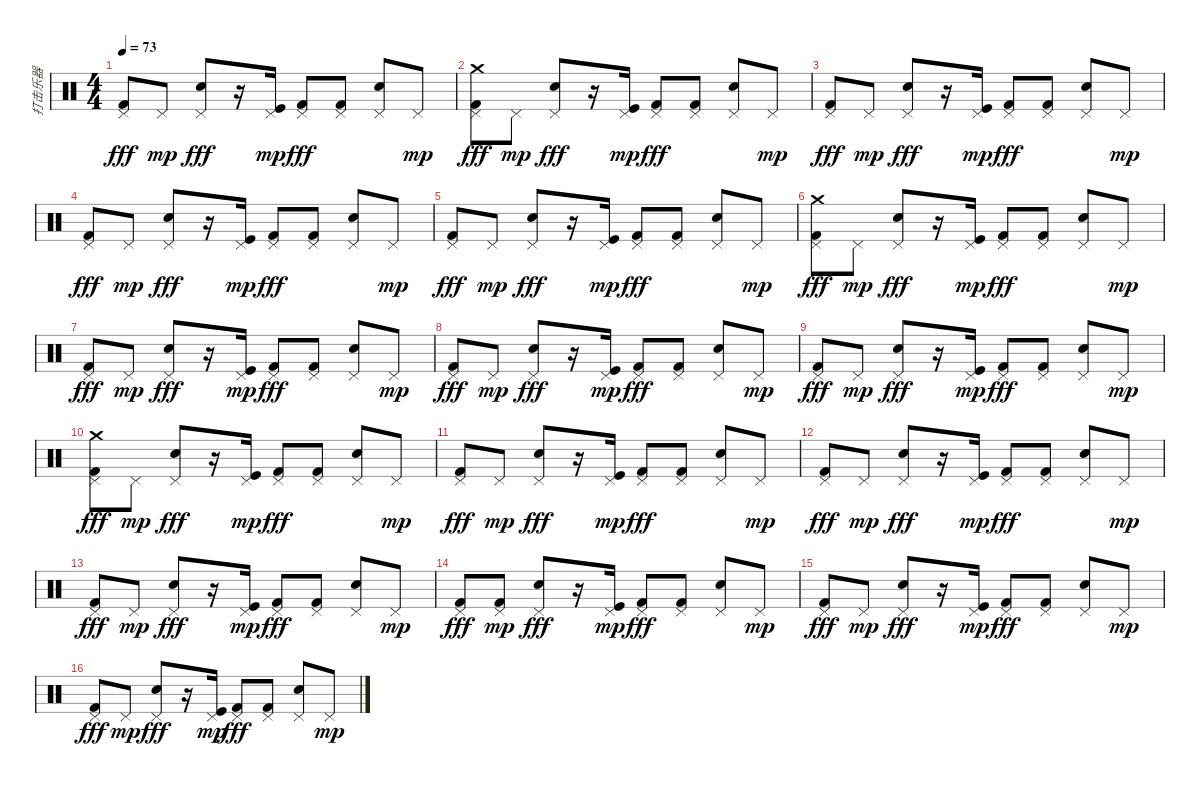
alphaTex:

\track ("打击乐器" "打击乐器") {instrument percussion}
\staff {score}
\articulation defaults
\ts (4 4)
\tempo 73
\clef neutral
\ks c
("Pedal Hi-Hat (hit)" "Kick (hit) 2").8{dy fff} "Pedal Hi-Hat (hit)".8{dy mp} ("Pedal Hi-Hat (hit)" "Electric Snare (hit)").8{dy fff} r.16 ("Pedal Hi-Hat (hit)" "Kick (hit)").16{dy mp} ("Pedal Hi-Hat (hit)" "Kick (hit) 2").8{dy fff} ("Pedal Hi-Hat (hit)" "Kick (hit) 2").8 ("Pedal Hi-Hat (hit)" "Electric Snare (hit)").8 "Pedal Hi-Hat (hit)".8{dy mp} |
("Pedal Hi-Hat (hit)" "Kick (hit) 2" "Crash medium (hit)").8{dy fff} "Pedal Hi-Hat (hit)".8{dy mp} ("Pedal Hi-Hat (hit)" "Electric Snare (hit)").8{dy fff} r.16 ("Pedal Hi-Hat (hit)" "Kick (hit)").16{dy mp} ("Pedal Hi-Hat (hit)" "Kick (hit) 2").8{dy fff} ("Pedal Hi-Hat (hit)" "Kick (hit) 2").8 ("Pedal Hi-Hat (hit)" "Electric Snare (hit)").8 "Pedal Hi-Hat (hit)".8{dy mp} |
("Pedal Hi-Hat (hit)" "Kick (hit) 2").8{dy fff} "Pedal Hi-Hat (hit)".8{dy mp} ("Pedal Hi-Hat (hit)" "Electric Snare (hit)").8{dy fff} r.16 ("Pedal Hi-Hat (hit)" "Kick (hit)").16{dy mp} ("Pedal Hi-Hat (hit)" "Kick (hit) 2").8{dy fff} ("Pedal Hi-Hat (hit)" "Kick (hit) 2").8 ("Pedal Hi-Hat (hit)" "Electric Snare (hit)").8 "Pedal Hi-Hat (hit)".8{dy mp} |
("Pedal Hi-Hat (hit)" "Kick (hit) 2").8{dy fff} "Pedal Hi-Hat (hit)".8{dy mp} ("Pedal Hi-Hat (hit)" "Electric Snare (hit)").8{dy fff} r.16 ("Pedal Hi-Hat (hit)" "Kick (hit)").16{dy mp} ("Pedal Hi-Hat (hit)" "Kick (hit) 2").8{dy fff} ("Pedal Hi-Hat (hit)" "Kick (hit) 2").8 ("Pedal Hi-Hat (hit)" "Electric Snare (hit)").8 "Pedal Hi-Hat (hit)".8{dy mp} |
("Pedal Hi-Hat (hit)" "Kick (hit) 2").8{dy fff} "Pedal Hi-Hat (hit)".8{dy mp} ("Pedal Hi-Hat (hit)" "Electric Snare (hit)").8{dy fff} r.16 ("Pedal Hi-Hat (hit)" "Kick (hit)").16{dy mp} ("Pedal Hi-Hat (hit)" "Kick (hit) 2").8{dy fff} ("Pedal Hi-Hat (hit)" "Kick (hit) 2").8 ("Pedal Hi-Hat (hit)" "Electric Snare (hit)").8 "Pedal Hi-Hat (hit)".8{dy mp} |
("Pedal Hi-Hat (hit)" "Kick (hit) 2" "Crash medium (hit)").8{dy fff} "Pedal Hi-Hat (hit)".8{dy mp} ("Pedal Hi-Hat (hit)" "Electric Snare (hit)").8{dy fff} r.16 ("Pedal Hi-Hat (hit)" "Kick (hit)").16{dy mp} ("Pedal Hi-Hat (hit)" "Kick (hit) 2").8{dy fff} ("Pedal Hi-Hat (hit)" "Kick (hit) 2").8 ("Pedal Hi-Hat (hit)" "Electric Snare (hit)").8 "Pedal Hi-Hat (hit)".8{dy mp} |
("Pedal Hi-Hat (hit)" "Kick (hit) 2").8{dy fff} "Pedal Hi-Hat (hit)".8{dy mp} ("Pedal Hi-Hat (hit)" "Electric Snare (hit)").8{dy fff} r.16 ("Pedal Hi-Hat (hit)" "Kick (hit)").16{dy mp} ("Pedal Hi-Hat (hit)" "Kick (hit) 2").8{dy fff} ("Pedal Hi-Hat (hit)" "Kick (hit) 2").8 ("Pedal Hi-Hat (hit)" "Electric Snare (hit)").8 "Pedal Hi-Hat (hit)".8{dy mp} |
("Pedal Hi-Hat (hit)" "Kick (hit) 2").8{dy fff} "Pedal Hi-Hat (hit)".8{dy mp} ("Pedal Hi-Hat (hit)" "Electric Snare (hit)").8{dy fff} r.16 ("Pedal Hi-Hat (hit)" "Kick (hit)").16{dy mp} ("Pedal Hi-Hat (hit)" "Kick (hit) 2").8{dy fff} ("Pedal Hi-Hat (hit)" "Kick (hit) 2").8 ("Pedal Hi-Hat (hit)" "Electric Snare (hit)").8 "Pedal Hi-Hat (hit)".8{dy mp} |
("Pedal Hi-Hat (hit)" "Kick (hit) 2").8{dy fff} "Pedal Hi-Hat (hit)".8{dy mp} ("Pedal Hi-Hat (hit)" "Electric Snare (hit)").8{dy fff} r.16 ("Pedal Hi-Hat (hit)" "Kick (hit)").16{dy mp} ("Pedal Hi-Hat (hit)" "Kick (hit) 2").8{dy fff} ("Pedal Hi-Hat (hit)" "Kick (hit) 2").8 ("Pedal Hi-Hat (hit)" "Electric Snare (hit)").8 "Pedal Hi-Hat (hit)".8{dy mp} |
("Pedal Hi-Hat (hit)" "Kick (hit) 2" "Crash medium (hit)").8{dy fff} "Pedal Hi-Hat (hit)".8{dy mp} ("Pedal Hi-Hat (hit)" "Electric Snare (hit)").8{dy fff} r.16 ("Pedal Hi-Hat (hit)" "Kick (hit)").16{dy mp} ("Pedal Hi-Hat (hit)" "Kick (hit) 2").8{dy fff} ("Pedal Hi-Hat (hit)" "Kick (hit) 2").8 ("Pedal Hi-Hat (hit)" "Electric Snare (hit)").8 "Pedal Hi-Hat (hit)".8{dy mp} |
("Pedal Hi-Hat (hit)" "Kick (hit) 2").8{dy fff} "Pedal Hi-Hat (hit)".8{dy mp} ("Pedal Hi-Hat (hit)" "Electric Snare (hit)").8{dy fff} r.16 ("Pedal Hi-Hat (hit)" "Kick (hit)").16{dy mp} ("Pedal Hi-Hat (hit)" "Kick (hit) 2").8{dy fff} ("Pedal Hi-Hat (hit)" "Kick (hit) 2").8 ("Pedal Hi-Hat (hit)" "Electric Snare (hit)").8 "Pedal Hi-Hat (hit)".8{dy mp} |
("Pedal Hi-Hat (hit)" "Kick (hit) 2").8{dy fff} "Pedal Hi-Hat (hit)".8{dy mp} ("Pedal Hi-Hat (hit)" "Electric Snare (hit)").8{dy fff} r.16 ("Pedal Hi-Hat (hit)" "Kick (hit)").16{dy mp} ("Pedal Hi-Hat (hit)" "Kick (hit) 2").8{dy fff} ("Pedal Hi-Hat (hit)" "Kick (hit) 2").8 ("Pedal Hi-Hat (hit)" "Electric Snare (hit)").8 "Pedal Hi-Hat (hit)".8{dy mp} |
("Pedal Hi-Hat (hit)" "Kick (hit) 2").8{dy fff} "Pedal Hi-Hat (hit)".8{dy mp} ("Pedal Hi-Hat (hit)" "Electric Snare (hit)").8{dy fff} r.16 ("Pedal Hi-Hat (hit)" "Kick (hit)").16{dy mp} ("Pedal Hi-Hat (hit)" "Kick (hit) 2").8{dy fff} ("Pedal Hi-Hat (hit)" "Kick (hit) 2").8 ("Pedal Hi-Hat (hit)" "Electric Snare (hit)").8 "Pedal Hi-Hat (hit)".8{dy mp} |
("Pedal Hi-Hat (hit)" "Kick (hit) 2").8{dy fff} ("Pedal Hi-Hat (hit)" "Kick (hit) 2").8{dy mp} ("Pedal Hi-Hat (hit)" "Electric Snare (hit)").8{dy fff} r.16 ("Pedal Hi-Hat (hit)" "Kick (hit)").16{dy mp} ("Pedal Hi-Hat (hit)" "Kick (hit) 2").8{dy fff} ("Pedal Hi-Hat (hit)" "Kick (hit) 2").8 ("Pedal Hi-Hat (hit)" "Electric Snare (hit)").8 "Pedal Hi-Hat (hit)".8{dy mp} |
("Pedal Hi-Hat (hit)" "Kick (hit) 2").8{dy fff} "Pedal Hi-Hat (hit)".8{dy mp} ("Pedal Hi-Hat (hit)" "Electric Snare (hit)").8{dy fff} r.16 ("Pedal Hi-Hat (hit)" "Kick (hit)").16{dy mp} ("Pedal Hi-Hat (hit)" "Kick (hit) 2").8{dy fff} ("Pedal Hi-Hat (hit)" "Kick (hit) 2").8 ("Pedal Hi-Hat (hit)" "Electric Snare (hit)").8 "Pedal Hi-Hat (hit)".8{dy mp} |
("Pedal Hi-Hat (hit)" "Kick (hit) 2").8{dy fff} "Pedal Hi-Hat (hit)".8{dy mp} ("Pedal Hi-Hat (hit)" "Electric Snare (hit)").8{dy fff} r.16 ("Pedal Hi-Hat (hit)" "Kick (hit)").16{dy mp} ("Pedal Hi-Hat (hit)" "Kick (hit) 2").8{dy fff} ("Pedal Hi-Hat (hit)" "Kick (hit) 2").8 ("Pedal Hi-Hat (hit)" "Electric Snare (hit)").8 "Pedal Hi-Hat (hit)".8{dy mp}
